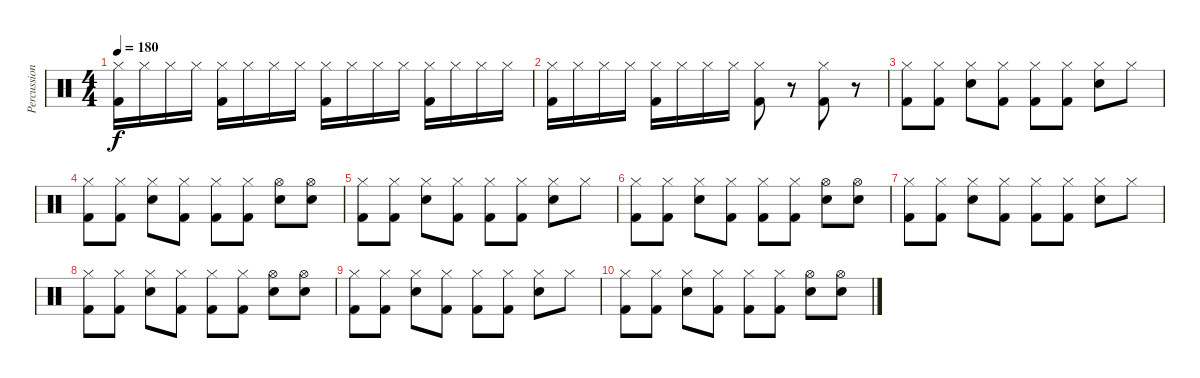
\track ("Percussion" "Percussion") {instrument percussion}
\staff {score}
\articulation defaults
\ts (4 4)
\tempo 180
\clef neutral
\ks c
("Hi-Hat (closed)" "Kick (hit) 2").16{dy f} "Hi-Hat (closed)".16 "Hi-Hat (closed)".16 "Hi-Hat (closed)".16 ("Hi-Hat (closed)" "Kick (hit) 2").16 "Hi-Hat (closed)".16 "Hi-Hat (closed)".16 "Hi-Hat (closed)".16 ("Hi-Hat (closed)" "Kick (hit) 2").16 "Hi-Hat (closed)".16 "Hi-Hat (closed)".16 "Hi-Hat (closed)".16 ("Hi-Hat (closed)" "Kick (hit) 2").16 "Hi-Hat (closed)".16 "Hi-Hat (closed)".16 "Hi-Hat (closed)".16 |
("Hi-Hat (closed)" "Kick (hit) 2").16 "Hi-Hat (closed)".16 "Hi-Hat (closed)".16 "Hi-Hat (closed)".16 ("Hi-Hat (closed)" "Kick (hit) 2").16 "Hi-Hat (closed)".16 "Hi-Hat (closed)".16 "Hi-Hat (closed)".16 ("Hi-Hat (closed)" "Kick (hit) 2").8 r.8 ("Hi-Hat (closed)" "Kick (hit) 2").8 r.8 |
("Hi-Hat (closed)" "Kick (hit) 2").8 ("Hi-Hat (closed)" "Kick (hit) 2").8 ("Hi-Hat (closed)" "Electric Snare (hit)").8 ("Hi-Hat (closed)" "Kick (hit) 2").8 ("Hi-Hat (closed)" "Kick (hit) 2").8 ("Hi-Hat (closed)" "Kick (hit) 2").8 ("Hi-Hat (closed)" "Electric Snare (hit)").8 "Hi-Hat (closed)".8 |
("Hi-Hat (closed)" "Kick (hit) 2").8 ("Hi-Hat (closed)" "Kick (hit) 2").8 ("Hi-Hat (closed)" "Electric Snare (hit)").8 ("Hi-Hat (closed)" "Kick (hit) 2").8 ("Hi-Hat (closed)" "Kick (hit) 2").8 ("Hi-Hat (closed)" "Kick (hit) 2").8 ("Hi-Hat (open)" "Electric Snare (hit)").8 ("Hi-Hat (open)" "Electric Snare (hit)").8 |
("Hi-Hat (closed)" "Kick (hit) 2").8 ("Hi-Hat (closed)" "Kick (hit) 2").8 ("Hi-Hat (closed)" "Electric Snare (hit)").8 ("Hi-Hat (closed)" "Kick (hit) 2").8 ("Hi-Hat (closed)" "Kick (hit) 2").8 ("Hi-Hat (closed)" "Kick (hit) 2").8 ("Hi-Hat (closed)" "Electric Snare (hit)").8 "Hi-Hat (closed)".8 |
("Hi-Hat (closed)" "Kick (hit) 2").8 ("Hi-Hat (closed)" "Kick (hit) 2").8 ("Hi-Hat (closed)" "Electric Snare (hit)").8 ("Hi-Hat (closed)" "Kick (hit) 2").8 ("Hi-Hat (closed)" "Kick (hit) 2").8 ("Hi-Hat (closed)" "Kick (hit) 2").8 ("Hi-Hat (open)" "Electric Snare (hit)").8 ("Hi-Hat (open)" "Electric Snare (hit)").8 |
("Hi-Hat (closed)" "Kick (hit) 2").8 ("Hi-Hat (closed)" "Kick (hit) 2").8 ("Hi-Hat (closed)" "Electric Snare (hit)").8 ("Hi-Hat (closed)" "Kick (hit) 2").8 ("Hi-Hat (closed)" "Kick (hit) 2").8 ("Hi-Hat (closed)" "Kick (hit) 2").8 ("Hi-Hat (closed)" "Electric Snare (hit)").8 "Hi-Hat (closed)".8 |
("Hi-Hat (closed)" "Kick (hit) 2").8 ("Hi-Hat (closed)" "Kick (hit) 2").8 ("Hi-Hat (closed)" "Electric Snare (hit)").8 ("Hi-Hat (closed)" "Kick (hit) 2").8 ("Hi-Hat (closed)" "Kick (hit) 2").8 ("Hi-Hat (closed)" "Kick (hit) 2").8 ("Hi-Hat (open)" "Electric Snare (hit)").8 ("Hi-Hat (open)" "Electric Snare (hit)").8 |
("Hi-Hat (closed)" "Kick (hit) 2").8 ("Hi-Hat (closed)" "Kick (hit) 2").8 ("Hi-Hat (closed)" "Electric Snare (hit)").8 ("Hi-Hat (closed)" "Kick (hit) 2").8 ("Hi-Hat (closed)" "Kick (hit) 2").8 ("Hi-Hat (closed)" "Kick (hit) 2").8 ("Hi-Hat (closed)" "Electric Snare (hit)").8 "Hi-Hat (closed)".8 |
("Hi-Hat (closed)" "Kick (hit) 2").8 ("Hi-Hat (closed)" "Kick (hit) 2").8 ("Hi-Hat (closed)" "Electric Snare (hit)").8 ("Hi-Hat (closed)" "Kick (hit) 2").8 ("Hi-Hat (closed)" "Kick (hit) 2").8 ("Hi-Hat (closed)" "Kick (hit) 2").8 ("Hi-Hat (open)" "Electric Snare (hit)").8 ("Hi-Hat (open)" "Electric Snare (hit)").8
